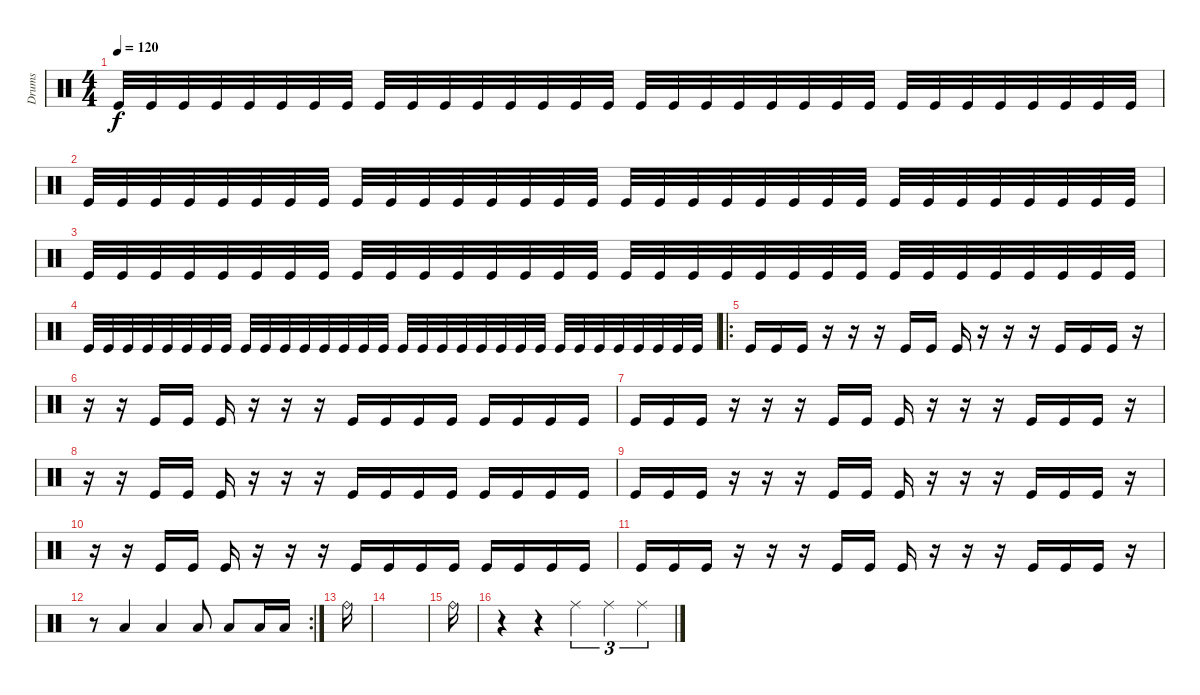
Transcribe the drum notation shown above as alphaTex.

\track ("Drums" "Drums") {instrument percussion}
\staff {score}
\articulation defaults
\ts (4 4)
\tempo 120
\clef neutral
\ks c "Kick (hit)".32{dy f} "Kick (hit)".32 "Kick (hit)".32 "Kick (hit)".32 "Kick (hit)".32 "Kick (hit)".32 "Kick (hit)".32 "Kick (hit)".32 "Kick (hit)".32 "Kick (hit)".32 "Kick (hit)".32 "Kick (hit)".32 "Kick (hit)".32 "Kick (hit)".32 "Kick (hit)".32 "Kick (hit)".32 "Kick (hit)".32 "Kick (hit)".32 "Kick (hit)".32 "Kick (hit)".32 "Kick (hit)".32 "Kick (hit)".32 "Kick (hit)".32 "Kick (hit)".32 "Kick (hit)".32 "Kick (hit)".32 "Kick (hit)".32 "Kick (hit)".32 "Kick (hit)".32 "Kick (hit)".32 "Kick (hit)".32 "Kick (hit)".32
|
"Kick (hit)".32 "Kick (hit)".32 "Kick (hit)".32 "Kick (hit)".32 "Kick (hit)".32 "Kick (hit)".32 "Kick (hit)".32 "Kick (hit)".32 "Kick (hit)".32 "Kick (hit)".32 "Kick (hit)".32 "Kick (hit)".32 "Kick (hit)".32 "Kick (hit)".32 "Kick (hit)".32 "Kick (hit)".32 "Kick (hit)".32 "Kick (hit)".32 "Kick (hit)".32 "Kick (hit)".32 "Kick (hit)".32 "Kick (hit)".32 "Kick (hit)".32 "Kick (hit)".32 "Kick (hit)".32 "Kick (hit)".32 "Kick (hit)".32 "Kick (hit)".32 "Kick (hit)".32 "Kick (hit)".32 "Kick (hit)".32 "Kick (hit)".32 |
"Kick (hit)".32 "Kick (hit)".32 "Kick (hit)".32 "Kick (hit)".32 "Kick (hit)".32 "Kick (hit)".32 "Kick (hit)".32 "Kick (hit)".32 "Kick (hit)".32 "Kick (hit)".32 "Kick (hit)".32 "Kick (hit)".32 "Kick (hit)".32 "Kick (hit)".32 "Kick (hit)".32 "Kick (hit)".32 "Kick (hit)".32 "Kick (hit)".32 "Kick (hit)".32 "Kick (hit)".32 "Kick (hit)".32 "Kick (hit)".32 "Kick (hit)".32 "Kick (hit)".32 "Kick (hit)".32 "Kick (hit)".32 "Kick (hit)".32 "Kick (hit)".32 "Kick (hit)".32 "Kick (hit)".32 "Kick (hit)".32 "Kick (hit)".32 |
"Kick (hit)".32 "Kick (hit)".32 "Kick (hit)".32 "Kick (hit)".32 "Kick (hit)".32 "Kick (hit)".32 "Kick (hit)".32 "Kick (hit)".32 "Kick (hit)".32 "Kick (hit)".32 "Kick (hit)".32 "Kick (hit)".32 "Kick (hit)".32 "Kick (hit)".32 "Kick (hit)".32 "Kick (hit)".32 "Kick (hit)".32 "Kick (hit)".32 "Kick (hit)".32 "Kick (hit)".32 "Kick (hit)".32 "Kick (hit)".32 "Kick (hit)".32 "Kick (hit)".32 "Kick (hit)".32 "Kick (hit)".32 "Kick (hit)".32 "Kick (hit)".32 "Kick (hit)".32 "Kick (hit)".32 "Kick (hit)".32 "Kick (hit)".32 |
\ro "Kick (hit)".16 "Kick (hit)".16 "Kick (hit)".16
r.16 r.16 r.16 "Kick (hit)".16 "Kick (hit)".16 "Kick (hit)".16 r.16 r.16 r.16 "Kick (hit)".16 "Kick (hit)".16 "Kick (hit)".16 r.16 |
r.16 r.16 "Kick (hit)".16 "Kick (hit)".16 "Kick (hit)".16 r.16 r.16 r.16 "Kick (hit)".16 "Kick (hit)".16 "Kick (hit)".16 "Kick (hit)".16 "Kick (hit)".16 "Kick (hit)".16 "Kick (hit)".16 "Kick (hit)".16 |
"Kick (hit)".16 "Kick (hit)".16 "Kick (hit)".16 r.16 r.16 r.16 "Kick (hit)".16 "Kick (hit)".16 "Kick (hit)".16 r.16 r.16 r.16 "Kick (hit)".16 "Kick (hit)".16 "Kick (hit)".16 r.16 |
r.16 r.16 "Kick (hit)".16 "Kick (hit)".16 "Kick (hit)".16 r.16 r.16 r.16 "Kick (hit)".16 "Kick (hit)".16 "Kick (hit)".16 "Kick (hit)".16 "Kick (hit)".16 "Kick (hit)".16 "Kick (hit)".16 "Kick (hit)".16 |
"Kick (hit)".16 "Kick (hit)".16 "Kick (hit)".16 r.16 r.16 r.16 "Kick (hit)".16 "Kick (hit)".16 "Kick (hit)".16 r.16 r.16 r.16 "Kick (hit)".16 "Kick (hit)".16 "Kick (hit)".16 r.16 |
r.16 r.16 "Kick (hit)".16 "Kick (hit)".16 "Kick (hit)".16 r.16 r.16 r.16 "Kick (hit)".16 "Kick (hit)".16 "Kick (hit)".16 "Kick (hit)".16 "Kick (hit)".16 "Kick (hit)".16 "Kick (hit)".16 "Kick (hit)".16 |
"Kick (hit)".16 "Kick (hit)".16 "Kick (hit)".16 r.16 r.16 r.16 "Kick (hit)".16 "Kick (hit)".16 "Kick (hit)".16 r.16 r.16 r.16 "Kick (hit)".16 "Kick (hit)".16 "Kick (hit)".16 r.16 |
\rc 2
r.8 "Low Floor Tom (hit)".4 "Low Tom (hit)".4 "Low Floor Tom (hit)".8 "Low Floor Tom (hit)".8 "Low Floor Tom (hit)".16 "Low Floor Tom (hit)".16 |
"Ride (bell)".16 |
|
"Ride (bell)".16 |
r.4 r.4 "Ride (middle)".4{tu (3 2)} "Ride (middle)".4{tu (3 2)} "Ride (middle)".4{tu (3 2)}
